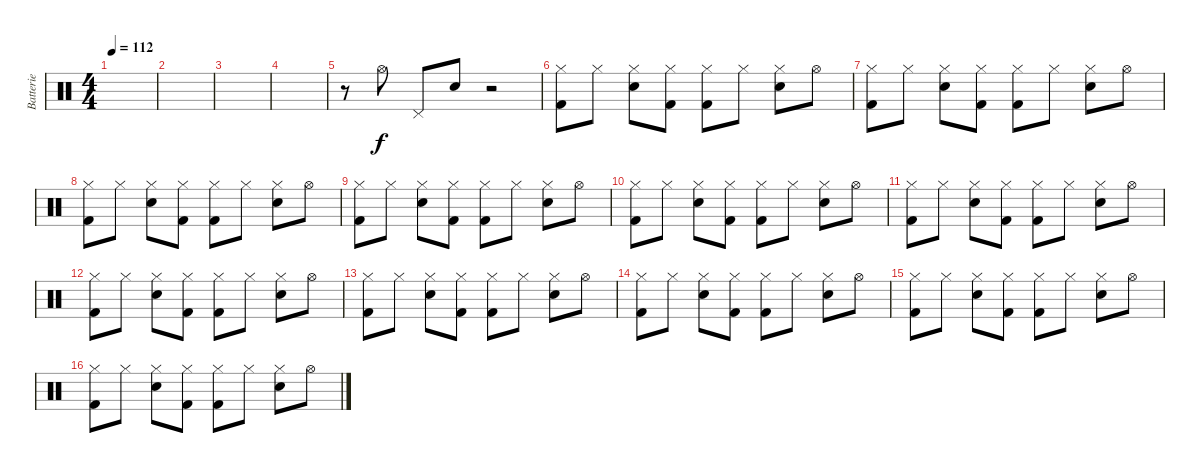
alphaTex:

\track ("Batterie" "Batterie") {instrument percussion}
\staff {score}
\articulation defaults
\ts (4 4)
\tempo 112
\clef neutral
\ks c
|
|
|
|
r.8 "Hi-Hat (open)".8 "Pedal Hi-Hat (hit)".8 "Electric Snare (hit)".8 r.2 |
("Hi-Hat (closed)" "Kick (hit) 2").8 "Hi-Hat (closed)".8 ("Hi-Hat (closed)" "Electric Snare (hit)").8 ("Hi-Hat (closed)" "Kick (hit) 2").8 ("Hi-Hat (closed)" "Kick (hit) 2").8 "Hi-Hat (closed)".8 ("Hi-Hat (closed)" "Electric Snare (hit)").8 "Hi-Hat (open)".8 |
("Hi-Hat (closed)" "Kick (hit) 2").8 "Hi-Hat (closed)".8 ("Hi-Hat (closed)" "Electric Snare (hit)").8 ("Hi-Hat (closed)" "Kick (hit) 2").8 ("Hi-Hat (closed)" "Kick (hit) 2").8 "Hi-Hat (closed)".8 ("Hi-Hat (closed)" "Electric Snare (hit)").8 "Hi-Hat (open)".8 |
("Hi-Hat (closed)" "Kick (hit) 2").8 "Hi-Hat (closed)".8 ("Hi-Hat (closed)" "Electric Snare (hit)").8 ("Hi-Hat (closed)" "Kick (hit) 2").8 ("Hi-Hat (closed)" "Kick (hit) 2").8 "Hi-Hat (closed)".8 ("Hi-Hat (closed)" "Electric Snare (hit)").8 "Hi-Hat (open)".8 |
("Hi-Hat (closed)" "Kick (hit) 2").8 "Hi-Hat (closed)".8 ("Hi-Hat (closed)" "Electric Snare (hit)").8 ("Hi-Hat (closed)" "Kick (hit) 2").8 ("Hi-Hat (closed)" "Kick (hit) 2").8 "Hi-Hat (closed)".8 ("Hi-Hat (closed)" "Electric Snare (hit)").8 "Hi-Hat (open)".8 |
("Hi-Hat (closed)" "Kick (hit) 2").8 "Hi-Hat (closed)".8 ("Hi-Hat (closed)" "Electric Snare (hit)").8 ("Hi-Hat (closed)" "Kick (hit) 2").8 ("Hi-Hat (closed)" "Kick (hit) 2").8 "Hi-Hat (closed)".8 ("Hi-Hat (closed)" "Electric Snare (hit)").8 "Hi-Hat (open)".8 |
("Hi-Hat (closed)" "Kick (hit) 2").8 "Hi-Hat (closed)".8 ("Hi-Hat (closed)" "Electric Snare (hit)").8 ("Hi-Hat (closed)" "Kick (hit) 2").8 ("Hi-Hat (closed)" "Kick (hit) 2").8 "Hi-Hat (closed)".8 ("Hi-Hat (closed)" "Electric Snare (hit)").8 "Hi-Hat (open)".8 |
("Hi-Hat (closed)" "Kick (hit) 2").8 "Hi-Hat (closed)".8 ("Hi-Hat (closed)" "Electric Snare (hit)").8 ("Hi-Hat (closed)" "Kick (hit) 2").8 ("Hi-Hat (closed)" "Kick (hit) 2").8 "Hi-Hat (closed)".8 ("Hi-Hat (closed)" "Electric Snare (hit)").8 "Hi-Hat (open)".8 |
("Hi-Hat (closed)" "Kick (hit) 2").8 "Hi-Hat (closed)".8 ("Hi-Hat (closed)" "Electric Snare (hit)").8 ("Hi-Hat (closed)" "Kick (hit) 2").8 ("Hi-Hat (closed)" "Kick (hit) 2").8 "Hi-Hat (closed)".8 ("Hi-Hat (closed)" "Electric Snare (hit)").8 "Hi-Hat (open)".8 |
("Hi-Hat (closed)" "Kick (hit) 2").8 "Hi-Hat (closed)".8 ("Hi-Hat (closed)" "Electric Snare (hit)").8 ("Hi-Hat (closed)" "Kick (hit) 2").8 ("Hi-Hat (closed)" "Kick (hit) 2").8 "Hi-Hat (closed)".8 ("Hi-Hat (closed)" "Electric Snare (hit)").8 "Hi-Hat (open)".8 |
("Hi-Hat (closed)" "Kick (hit) 2").8 "Hi-Hat (closed)".8 ("Hi-Hat (closed)" "Electric Snare (hit)").8 ("Hi-Hat (closed)" "Kick (hit) 2").8 ("Hi-Hat (closed)" "Kick (hit) 2").8 "Hi-Hat (closed)".8 ("Hi-Hat (closed)" "Electric Snare (hit)").8 "Hi-Hat (open)".8 |
("Hi-Hat (closed)" "Kick (hit) 2").8 "Hi-Hat (closed)".8 ("Hi-Hat (closed)" "Electric Snare (hit)").8 ("Hi-Hat (closed)" "Kick (hit) 2").8 ("Hi-Hat (closed)" "Kick (hit) 2").8 "Hi-Hat (closed)".8 ("Hi-Hat (closed)" "Electric Snare (hit)").8 "Hi-Hat (open)".8
